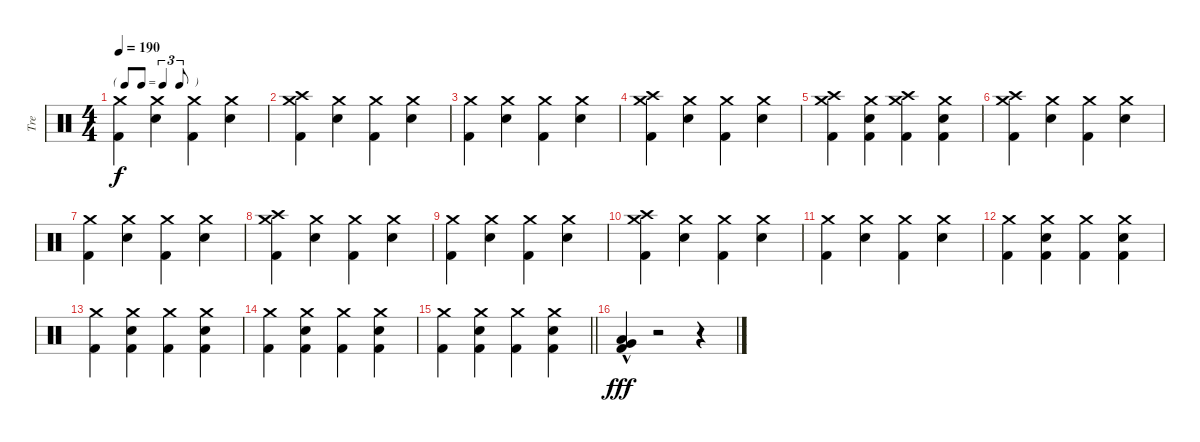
\track ("Tre" "Tre") {instrument percussion}
\staff {score}
\articulation defaults
\ts (4 4)
\tf triplet8th
\tempo 190
\clef neutral
\ks c
("Crash medium (hit)" "Kick (hit) 2").4{dy f} ("Crash medium (hit)" "Snare (hit) 2").4 ("Crash medium (hit)" "Kick (hit) 2").4 ("Crash medium (hit)" "Snare (hit) 2").4 |
("Crash medium (hit)" "Crash high (hit)" "Kick (hit) 2").4 ("Crash medium (hit)" "Snare (hit) 2").4 ("Crash medium (hit)" "Kick (hit) 2").4 ("Crash medium (hit)" "Snare (hit) 2").4 |
("Crash medium (hit)" "Kick (hit) 2").4 ("Crash medium (hit)" "Snare (hit) 2").4 ("Crash medium (hit)" "Kick (hit) 2").4 ("Crash medium (hit)" "Snare (hit) 2").4 |
("Crash medium (hit)" "Crash high (hit)" "Kick (hit) 2").4 ("Crash medium (hit)" "Snare (hit) 2").4 ("Crash medium (hit)" "Kick (hit) 2").4 ("Crash medium (hit)" "Snare (hit) 2").4 |
("Crash medium (hit)" "Crash high (hit)" "Kick (hit) 2").4 ("Crash medium (hit)" "Snare (hit) 2" "Kick (hit) 2").4 ("Crash medium (hit)" "Crash high (hit)" "Kick (hit) 2").4 ("Crash medium (hit)" "Snare (hit) 2" "Kick (hit) 2").4 |
("Crash medium (hit)" "Crash high (hit)" "Kick (hit) 2").4 ("Crash medium (hit)" "Snare (hit) 2").4 ("Crash medium (hit)" "Kick (hit) 2").4 ("Crash medium (hit)" "Snare (hit) 2").4 |
("Crash medium (hit)" "Kick (hit) 2").4 ("Crash medium (hit)" "Snare (hit) 2").4 ("Crash medium (hit)" "Kick (hit) 2").4 ("Crash medium (hit)" "Snare (hit) 2").4 |
("Crash medium (hit)" "Crash high (hit)" "Kick (hit) 2").4 ("Crash medium (hit)" "Snare (hit) 2").4 ("Crash medium (hit)" "Kick (hit) 2").4 ("Crash medium (hit)" "Snare (hit) 2").4 |
("Crash medium (hit)" "Kick (hit) 2").4 ("Crash medium (hit)" "Snare (hit) 2").4 ("Crash medium (hit)" "Kick (hit) 2").4 ("Crash medium (hit)" "Snare (hit) 2").4 |
("Crash medium (hit)" "Crash high (hit)" "Kick (hit) 2").4 ("Crash medium (hit)" "Snare (hit) 2").4 ("Crash medium (hit)" "Kick (hit) 2").4 ("Crash medium (hit)" "Snare (hit) 2").4 |
("Crash medium (hit)" "Kick (hit) 2").4 ("Crash medium (hit)" "Snare (hit) 2").4 ("Crash medium (hit)" "Kick (hit) 2").4 ("Crash medium (hit)" "Snare (hit) 2").4 |
("Crash medium (hit)" "Kick (hit) 2").4 ("Crash medium (hit)" "Snare (hit) 2" "Kick (hit) 2").4 ("Crash medium (hit)" "Kick (hit) 2").4 ("Crash medium (hit)" "Snare (hit) 2" "Kick (hit) 2").4 |
("Crash medium (hit)" "Kick (hit) 2").4 ("Crash medium (hit)" "Snare (hit) 2" "Kick (hit) 2").4 ("Crash medium (hit)" "Kick (hit) 2").4 ("Crash medium (hit)" "Snare (hit) 2" "Kick (hit) 2").4 |
("Crash medium (hit)" "Kick (hit) 2").4 ("Crash medium (hit)" "Snare (hit) 2" "Kick (hit) 2").4 ("Crash medium (hit)" "Kick (hit) 2").4 ("Crash medium (hit)" "Snare (hit) 2" "Kick (hit) 2").4 |
\barLineRight lightlight
("Crash medium (hit)" "Kick (hit) 2").4 ("Crash medium (hit)" "Snare (hit) 2" "Kick (hit) 2").4 ("Crash medium (hit)" "Kick (hit) 2").4 ("Crash medium (hit)" "Snare (hit) 2" "Kick (hit) 2").4 |
("Very Low Tom (hit)"{hac} "Low Floor Tom (hit)"{hac} "Kick (hit) 2"{hac}).4{dy fff} r.2 r.4
